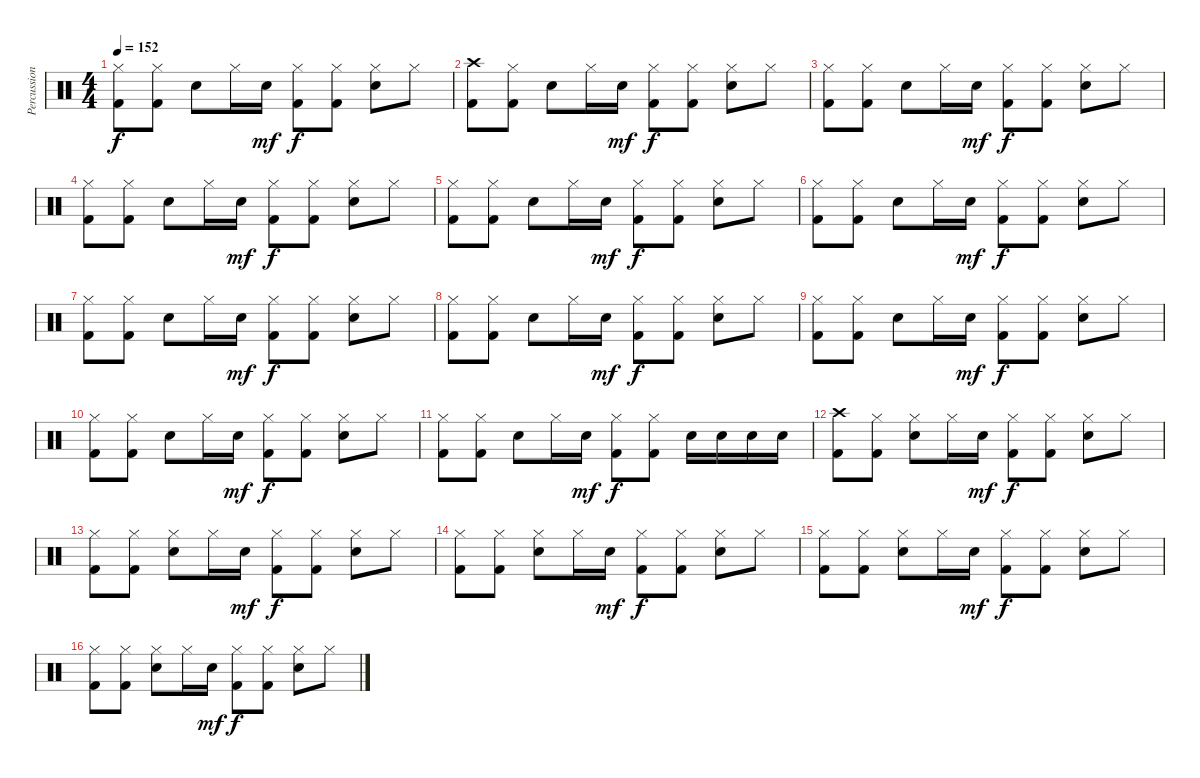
\track ("Percussion" "Percussion") {instrument percussion}
\staff {score}
\articulation defaults
\ts (4 4)
\tempo 152
\clef neutral
\ks c
("Kick (hit) 2" "Hi-Hat (closed)").8{dy f} ("Kick (hit) 2" "Hi-Hat (closed)").8 "Electric Snare (hit)".8 "Hi-Hat (closed)".16 "Electric Snare (hit)".16{dy mf} ("Kick (hit) 2" "Hi-Hat (closed)").8{dy f} ("Kick (hit) 2" "Hi-Hat (closed)").8 ("Electric Snare (hit)" "Hi-Hat (closed)").8 "Hi-Hat (closed)".8 |
("Kick (hit) 2" "Crash high (hit)").8 ("Kick (hit) 2" "Hi-Hat (closed)").8 "Electric Snare (hit)".8 "Hi-Hat (closed)".16 "Electric Snare (hit)".16{dy mf} ("Kick (hit) 2" "Hi-Hat (closed)").8{dy f} ("Kick (hit) 2" "Hi-Hat (closed)").8 ("Electric Snare (hit)" "Hi-Hat (closed)").8 "Hi-Hat (closed)".8 |
("Kick (hit) 2" "Hi-Hat (closed)").8 ("Kick (hit) 2" "Hi-Hat (closed)").8 "Electric Snare (hit)".8 "Hi-Hat (closed)".16 "Electric Snare (hit)".16{dy mf} ("Kick (hit) 2" "Hi-Hat (closed)").8{dy f} ("Kick (hit) 2" "Hi-Hat (closed)").8 ("Electric Snare (hit)" "Hi-Hat (closed)").8 "Hi-Hat (closed)".8 |
("Kick (hit) 2" "Hi-Hat (closed)").8 ("Kick (hit) 2" "Hi-Hat (closed)").8 "Electric Snare (hit)".8 "Hi-Hat (closed)".16 "Electric Snare (hit)".16{dy mf} ("Kick (hit) 2" "Hi-Hat (closed)").8{dy f} ("Kick (hit) 2" "Hi-Hat (closed)").8 ("Electric Snare (hit)" "Hi-Hat (closed)").8 "Hi-Hat (closed)".8 |
("Kick (hit) 2" "Hi-Hat (closed)").8 ("Kick (hit) 2" "Hi-Hat (closed)").8 "Electric Snare (hit)".8 "Hi-Hat (closed)".16 "Electric Snare (hit)".16{dy mf} ("Kick (hit) 2" "Hi-Hat (closed)").8{dy f} ("Kick (hit) 2" "Hi-Hat (closed)").8 ("Electric Snare (hit)" "Hi-Hat (closed)").8 "Hi-Hat (closed)".8 |
("Kick (hit) 2" "Hi-Hat (closed)").8 ("Kick (hit) 2" "Hi-Hat (closed)").8 "Electric Snare (hit)".8 "Hi-Hat (closed)".16 "Electric Snare (hit)".16{dy mf} ("Kick (hit) 2" "Hi-Hat (closed)").8{dy f} ("Kick (hit) 2" "Hi-Hat (closed)").8 ("Electric Snare (hit)" "Hi-Hat (closed)").8 "Hi-Hat (closed)".8 |
("Kick (hit) 2" "Hi-Hat (closed)").8 ("Kick (hit) 2" "Hi-Hat (closed)").8 "Electric Snare (hit)".8 "Hi-Hat (closed)".16 "Electric Snare (hit)".16{dy mf} ("Kick (hit) 2" "Hi-Hat (closed)").8{dy f} ("Kick (hit) 2" "Hi-Hat (closed)").8 ("Electric Snare (hit)" "Hi-Hat (closed)").8 "Hi-Hat (closed)".8 |
("Kick (hit) 2" "Hi-Hat (closed)").8 ("Kick (hit) 2" "Hi-Hat (closed)").8 "Electric Snare (hit)".8 "Hi-Hat (closed)".16 "Electric Snare (hit)".16{dy mf} ("Kick (hit) 2" "Hi-Hat (closed)").8{dy f} ("Kick (hit) 2" "Hi-Hat (closed)").8 ("Electric Snare (hit)" "Hi-Hat (closed)").8 "Hi-Hat (closed)".8 |
("Kick (hit) 2" "Hi-Hat (closed)").8 ("Kick (hit) 2" "Hi-Hat (closed)").8 "Electric Snare (hit)".8 "Hi-Hat (closed)".16 "Electric Snare (hit)".16{dy mf} ("Kick (hit) 2" "Hi-Hat (closed)").8{dy f} ("Kick (hit) 2" "Hi-Hat (closed)").8 ("Electric Snare (hit)" "Hi-Hat (closed)").8 "Hi-Hat (closed)".8 |
("Kick (hit) 2" "Hi-Hat (closed)").8 ("Kick (hit) 2" "Hi-Hat (closed)").8 "Electric Snare (hit)".8 "Hi-Hat (closed)".16 "Electric Snare (hit)".16{dy mf} ("Kick (hit) 2" "Hi-Hat (closed)").8{dy f} ("Kick (hit) 2" "Hi-Hat (closed)").8 ("Electric Snare (hit)" "Hi-Hat (closed)").8 "Hi-Hat (closed)".8 |
("Kick (hit) 2" "Hi-Hat (closed)").8 ("Kick (hit) 2" "Hi-Hat (closed)").8 "Electric Snare (hit)".8 "Hi-Hat (closed)".16 "Electric Snare (hit)".16{dy mf} ("Kick (hit) 2" "Hi-Hat (closed)").8{dy f} ("Kick (hit) 2" "Hi-Hat (closed)").8 "Electric Snare (hit)".16 "Electric Snare (hit)".16 "Electric Snare (hit)".16 "Electric Snare (hit)".16 |
("Kick (hit) 2" "Crash high (hit)").8 ("Kick (hit) 2" "Hi-Hat (closed)").8 ("Electric Snare (hit)" "Hi-Hat (closed)").8 "Hi-Hat (closed)".16 "Electric Snare (hit)".16{dy mf} ("Kick (hit) 2" "Hi-Hat (closed)").8{dy f} ("Kick (hit) 2" "Hi-Hat (closed)").8 ("Electric Snare (hit)" "Hi-Hat (closed)").8 "Hi-Hat (closed)".8 |
("Kick (hit) 2" "Hi-Hat (closed)").8 ("Kick (hit) 2" "Hi-Hat (closed)").8 ("Electric Snare (hit)" "Hi-Hat (closed)").8 "Hi-Hat (closed)".16 "Electric Snare (hit)".16{dy mf} ("Kick (hit) 2" "Hi-Hat (closed)").8{dy f} ("Kick (hit) 2" "Hi-Hat (closed)").8 ("Electric Snare (hit)" "Hi-Hat (closed)").8 "Hi-Hat (closed)".8 |
("Kick (hit) 2" "Hi-Hat (closed)").8 ("Kick (hit) 2" "Hi-Hat (closed)").8 ("Electric Snare (hit)" "Hi-Hat (closed)").8 "Hi-Hat (closed)".16 "Electric Snare (hit)".16{dy mf} ("Kick (hit) 2" "Hi-Hat (closed)").8{dy f} ("Kick (hit) 2" "Hi-Hat (closed)").8 ("Electric Snare (hit)" "Hi-Hat (closed)").8 "Hi-Hat (closed)".8 |
("Kick (hit) 2" "Hi-Hat (closed)").8 ("Kick (hit) 2" "Hi-Hat (closed)").8 ("Electric Snare (hit)" "Hi-Hat (closed)").8 "Hi-Hat (closed)".16 "Electric Snare (hit)".16{dy mf} ("Kick (hit) 2" "Hi-Hat (closed)").8{dy f} ("Kick (hit) 2" "Hi-Hat (closed)").8 ("Electric Snare (hit)" "Hi-Hat (closed)").8 "Hi-Hat (closed)".8 |
("Kick (hit) 2" "Hi-Hat (closed)").8 ("Kick (hit) 2" "Hi-Hat (closed)").8 ("Electric Snare (hit)" "Hi-Hat (closed)").8 "Hi-Hat (closed)".16 "Electric Snare (hit)".16{dy mf} ("Kick (hit) 2" "Hi-Hat (closed)").8{dy f} ("Kick (hit) 2" "Hi-Hat (closed)").8 ("Electric Snare (hit)" "Hi-Hat (closed)").8 "Hi-Hat (closed)".8
